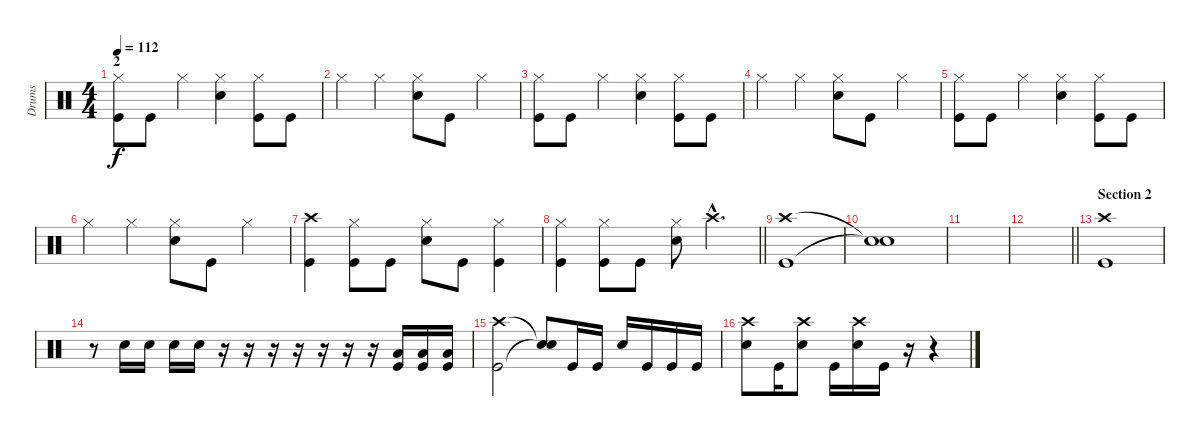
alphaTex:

\track ("Drums" "Drums") {instrument percussion}
\staff {score}
\articulation defaults
\ts (4 4)
\section ("" "2")
\tempo 112
\clef neutral
\ks c
("Hi-Hat (closed)" "Kick (hit)").8{dy f} "Kick (hit)".8 "Hi-Hat (closed)".4 ("Snare (hit) 2" "Hi-Hat (closed)").4 ("Hi-Hat (closed)" "Kick (hit)").8 "Kick (hit)".8 |
"Hi-Hat (closed)".4 "Hi-Hat (closed)".4 ("Snare (hit) 2" "Hi-Hat (closed)").8 "Kick (hit)".8 "Hi-Hat (closed)".4 |
("Hi-Hat (closed)" "Kick (hit)").8 "Kick (hit)".8 "Hi-Hat (closed)".4 ("Snare (hit) 2" "Hi-Hat (closed)").4 ("Hi-Hat (closed)" "Kick (hit)").8 "Kick (hit)".8 |
"Hi-Hat (closed)".4 "Hi-Hat (closed)".4 ("Snare (hit) 2" "Hi-Hat (closed)").8 "Kick (hit)".8 "Hi-Hat (closed)".4 |
("Hi-Hat (closed)" "Kick (hit)").8 "Kick (hit)".8 "Hi-Hat (closed)".4 ("Snare (hit) 2" "Hi-Hat (closed)").4 ("Hi-Hat (closed)" "Kick (hit)").8 "Kick (hit)".8 |
"Hi-Hat (closed)".4 "Hi-Hat (closed)".4 ("Snare (hit) 2" "Hi-Hat (closed)").8 "Kick (hit)".8 "Hi-Hat (closed)".4 |
("Crash high (hit)" "Kick (hit)").4 ("Hi-Hat (closed)" "Kick (hit)").8 "Kick (hit)".8 ("Snare (hit) 2" "Hi-Hat (closed)").8 "Kick (hit)".8 ("Kick (hit)" "Hi-Hat (closed)").4 |
\barLineRight lightlight
("Hi-Hat (closed)" "Kick (hit)").4 ("Hi-Hat (closed)" "Kick (hit)").8 "Kick (hit)".8 ("Snare (hit) 2" "Hi-Hat (closed)").8 "Crash high (hit)"{hac}.4{d} |
("Crash high (hit)" "Kick (hit)").1 |
("Snare (hit)"{t} "Snare (hit)"{t}).1 |
|
\barLineRight lightlight
|
\section ("" "Section 2")
("Crash high (hit)" "Kick (hit)").1 |
r.8 "Snare (hit) 2".16 "Snare (hit) 2".16 "Snare (hit) 2".16 "Snare (hit) 2".16 r.16 r.16 r.16 r.16 r.16 r.16 r.16 ("Kick (hit)" "Low Floor Tom (hit)").16 ("Kick (hit)" "Low Floor Tom (hit)").16 ("Kick (hit)" "Low Floor Tom (hit)").16 |
("Crash high (hit)" "Kick (hit)").2 ("Snare (hit)"{t} "Snare (hit)"{t}).8 "Kick (hit)".16 "Kick (hit)".16 "Snare (hit) 2".16 "Kick (hit)".16 "Kick (hit)".16 "Kick (hit)".16 |
("Crash high (hit)" "Snare (hit) 2").8 "Kick (hit)".16 ("Crash high (hit)" "Snare (hit) 2").8 "Kick (hit)".16 ("Crash high (hit)" "Snare (hit) 2").16 "Kick (hit)".16 r.16 r.4
